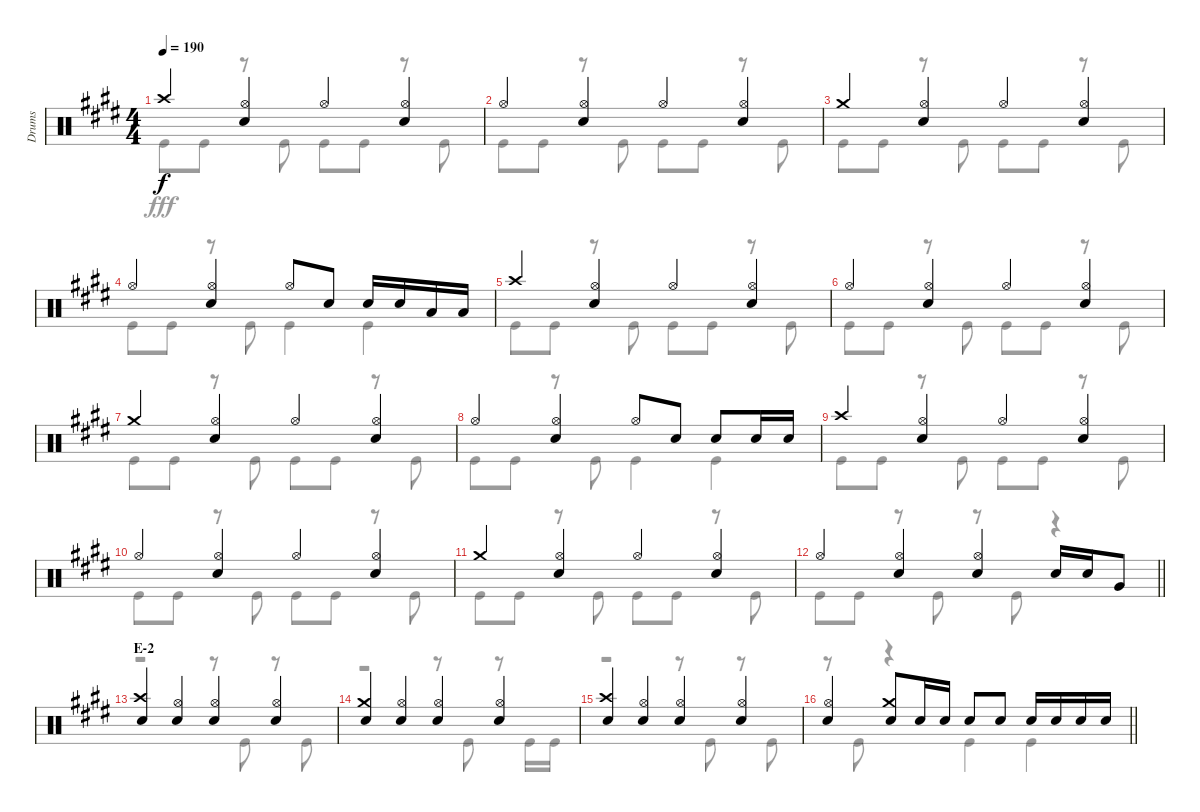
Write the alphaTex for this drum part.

\track ("Drums" "Drums") {instrument percussion}
\staff {score}
\articulation defaults
\voice
\ts (4 4)
\tempo 190
\clef neutral
\ks e "Crash high (hit)".4{dy f}
("Hi-Hat (open)" "Snare (hit) 2").4 "Hi-Hat (open)".4 ("Hi-Hat (open)" "Snare (hit) 2").4 |
"Hi-Hat (open)".4 ("Hi-Hat (open)" "Snare (hit) 2").4 "Hi-Hat (open)".4 ("Hi-Hat (open)" "Snare (hit) 2").4 |
"Crash medium (hit)".4 ("Hi-Hat (open)" "Snare (hit) 2").4 "Hi-Hat (open)".4 ("Hi-Hat (open)" "Snare (hit) 2").4 |
"Hi-Hat (open)".4 ("Hi-Hat (open)" "Snare (hit) 2").4 "Hi-Hat (open)".8 "Snare (hit) 2".8 "Snare (hit) 2".16 "Snare (hit) 2".16 "Low Tom (hit)".16 "Low Tom (hit)".16 |
"Crash high (hit)".4 ("Hi-Hat (open)" "Snare (hit) 2").4 "Hi-Hat (open)".4 ("Hi-Hat (open)" "Snare (hit) 2").4 |
"Hi-Hat (open)".4 ("Hi-Hat (open)" "Snare (hit) 2").4 "Hi-Hat (open)".4 ("Hi-Hat (open)" "Snare (hit) 2").4 |
"Crash medium (hit)".4 ("Hi-Hat (open)" "Snare (hit) 2").4 "Hi-Hat (open)".4 ("Hi-Hat (open)" "Snare (hit) 2").4 |
"Hi-Hat (open)".4 ("Hi-Hat (open)" "Snare (hit) 2").4 "Hi-Hat (open)".8 "Snare (hit) 2".8 "Snare (hit) 2".8 "Snare (hit) 2".16 "Snare (hit) 2".16 |
"Crash high (hit)".4 ("Hi-Hat (open)" "Snare (hit) 2").4 "Hi-Hat (open)".4 ("Hi-Hat (open)" "Snare (hit) 2").4 |
"Hi-Hat (open)".4 ("Hi-Hat (open)" "Snare (hit) 2").4 "Hi-Hat (open)".4 ("Hi-Hat (open)" "Snare (hit) 2").4 |
"Crash medium (hit)".4 ("Hi-Hat (open)" "Snare (hit) 2").4 "Hi-Hat (open)".4 ("Hi-Hat (open)" "Snare (hit) 2").4 |
\barLineRight lightlight "Hi-Hat (open)".4
("Hi-Hat (open)" "Snare (hit) 2").4 ("Hi-Hat (open)" "Snare (hit) 2").4 "Snare (hit) 2".16 "Snare (hit) 2".16 "Very Low Tom (hit)".8 |
\section ("" "E-2")
("Crash high (hit)" "Snare (hit) 2").4 ("Hi-Hat (open)" "Snare (hit) 2").4 ("Hi-Hat (open)" "Snare (hit) 2").4 ("Hi-Hat (open)" "Snare (hit) 2").4 |
("Crash medium (hit)" "Snare (hit) 2").4 ("Hi-Hat (open)" "Snare (hit) 2").4 ("Hi-Hat (open)" "Snare (hit) 2").4 ("Hi-Hat (open)" "Snare (hit) 2").4 |
("Crash high (hit)" "Snare (hit) 2").4 ("Hi-Hat (open)" "Snare (hit) 2").4 ("Hi-Hat (open)" "Snare (hit) 2").4 ("Hi-Hat (open)" "Snare (hit) 2").4 |
\barLineRight lightlight
("Hi-Hat (open)" "Snare (hit) 2").4 ("Crash medium (hit)" "Snare (hit) 2").8 "Snare (hit) 2".16 "Snare (hit) 2".16 "Snare (hit) 2".8 "Snare (hit) 2".8 "Snare (hit) 2".16 "Snare (hit) 2".16 "Snare (hit) 2".16 "Snare (hit) 2".16
\voice
\clef neutral
\ottava regular
\simile none
\ks e "Kick (hit)".8{dy fff} "Kick (hit)".8
r.8 "Kick (hit)".8 "Kick (hit)".8 "Kick (hit)".8 r.8 "Kick (hit)".8 |
"Kick (hit)".8 "Kick (hit)".8 r.8 "Kick (hit)".8 "Kick (hit)".8 "Kick (hit)".8 r.8 "Kick (hit)".8 |
"Kick (hit)".8 "Kick (hit)".8 r.8 "Kick (hit)".8 "Kick (hit)".8 "Kick (hit)".8 r.8 "Kick (hit)".8 |
"Kick (hit)".8 "Kick (hit)".8 r.8 "Kick (hit)".8 "Kick (hit)".4 "Kick (hit)".4 |
"Kick (hit)".8 "Kick (hit)".8 r.8 "Kick (hit)".8 "Kick (hit)".8 "Kick (hit)".8 r.8 "Kick (hit)".8 |
"Kick (hit)".8 "Kick (hit)".8 r.8 "Kick (hit)".8 "Kick (hit)".8 "Kick (hit)".8 r.8 "Kick (hit)".8 |
"Kick (hit)".8 "Kick (hit)".8 r.8 "Kick (hit)".8 "Kick (hit)".8 "Kick (hit)".8 r.8 "Kick (hit)".8 |
"Kick (hit)".8 "Kick (hit)".8 r.8 "Kick (hit)".8 "Kick (hit)".4 "Kick (hit)".4 |
"Kick (hit)".8 "Kick (hit)".8 r.8 "Kick (hit)".8 "Kick (hit)".8 "Kick (hit)".8 r.8 "Kick (hit)".8 |
"Kick (hit)".8 "Kick (hit)".8 r.8 "Kick (hit)".8 "Kick (hit)".8 "Kick (hit)".8 r.8 "Kick (hit)".8 |
"Kick (hit)".8 "Kick (hit)".8 r.8 "Kick (hit)".8 "Kick (hit)".8 "Kick (hit)".8 r.8 "Kick (hit)".8 |
\barLineRight lightlight "Kick (hit)".8 "Kick (hit)".8
r.8 "Kick (hit)".8 r.8 "Kick (hit)".8 r.4 |
r.2 r.8 "Kick (hit)".8 r.8 "Kick (hit)".8 |
r.2 r.8 "Kick (hit)".8 r.8 "Kick (hit)".16 "Kick (hit)".16 |
r.2 r.8 "Kick (hit)".8 r.8 "Kick (hit)".8 |
\barLineRight lightlight
r.8 "Kick (hit)".8 r.4 "Kick (hit)".4 "Kick (hit)".4
